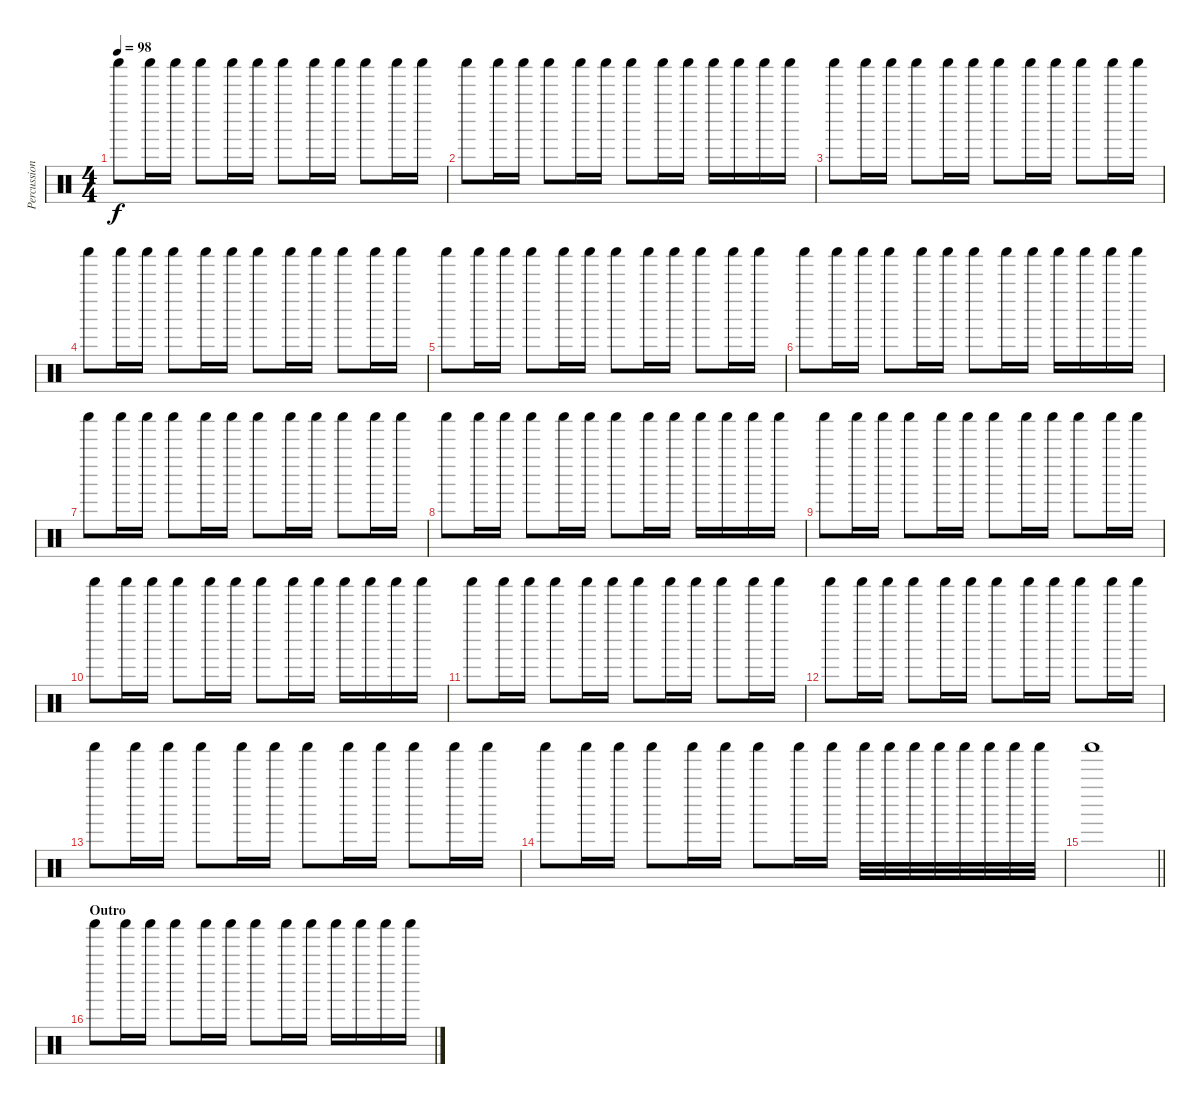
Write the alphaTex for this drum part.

\track ("Percussion" "Percussion") {instrument percussion}
\staff {score}
\articulation defaults
\ts (4 4)
\tempo 98
\clef neutral
\ks c "Shaker (hit)".8{dy f} "Shaker (hit)".16 "Shaker (hit)".16 "Shaker (hit)".8 "Shaker (hit)".16 "Shaker (hit)".16 "Shaker (hit)".8 "Shaker (hit)".16 "Shaker (hit)".16 "Shaker (hit)".8 "Shaker (hit)".16 "Shaker (hit)".16
|
"Shaker (hit)".8 "Shaker (hit)".16 "Shaker (hit)".16 "Shaker (hit)".8 "Shaker (hit)".16 "Shaker (hit)".16 "Shaker (hit)".8 "Shaker (hit)".16 "Shaker (hit)".16 "Shaker (hit)".16 "Shaker (hit)".16 "Shaker (hit)".16 "Shaker (hit)".16 |
"Shaker (hit)".8 "Shaker (hit)".16 "Shaker (hit)".16 "Shaker (hit)".8 "Shaker (hit)".16 "Shaker (hit)".16 "Shaker (hit)".8 "Shaker (hit)".16 "Shaker (hit)".16 "Shaker (hit)".8 "Shaker (hit)".16 "Shaker (hit)".16 |
"Shaker (hit)".8 "Shaker (hit)".16 "Shaker (hit)".16 "Shaker (hit)".8 "Shaker (hit)".16 "Shaker (hit)".16 "Shaker (hit)".8 "Shaker (hit)".16 "Shaker (hit)".16 "Shaker (hit)".8 "Shaker (hit)".16 "Shaker (hit)".16 |
"Shaker (hit)".8 "Shaker (hit)".16 "Shaker (hit)".16 "Shaker (hit)".8 "Shaker (hit)".16 "Shaker (hit)".16 "Shaker (hit)".8 "Shaker (hit)".16 "Shaker (hit)".16 "Shaker (hit)".8 "Shaker (hit)".16 "Shaker (hit)".16 |
"Shaker (hit)".8 "Shaker (hit)".16 "Shaker (hit)".16 "Shaker (hit)".8 "Shaker (hit)".16 "Shaker (hit)".16 "Shaker (hit)".8 "Shaker (hit)".16 "Shaker (hit)".16 "Shaker (hit)".16 "Shaker (hit)".16 "Shaker (hit)".16 "Shaker (hit)".16 |
"Shaker (hit)".8 "Shaker (hit)".16 "Shaker (hit)".16 "Shaker (hit)".8 "Shaker (hit)".16 "Shaker (hit)".16 "Shaker (hit)".8 "Shaker (hit)".16 "Shaker (hit)".16 "Shaker (hit)".8 "Shaker (hit)".16 "Shaker (hit)".16 |
"Shaker (hit)".8 "Shaker (hit)".16 "Shaker (hit)".16 "Shaker (hit)".8 "Shaker (hit)".16 "Shaker (hit)".16 "Shaker (hit)".8 "Shaker (hit)".16 "Shaker (hit)".16 "Shaker (hit)".16 "Shaker (hit)".16 "Shaker (hit)".16 "Shaker (hit)".16 |
"Shaker (hit)".8 "Shaker (hit)".16 "Shaker (hit)".16 "Shaker (hit)".8 "Shaker (hit)".16 "Shaker (hit)".16 "Shaker (hit)".8 "Shaker (hit)".16 "Shaker (hit)".16 "Shaker (hit)".8 "Shaker (hit)".16 "Shaker (hit)".16 |
"Shaker (hit)".8 "Shaker (hit)".16 "Shaker (hit)".16 "Shaker (hit)".8 "Shaker (hit)".16 "Shaker (hit)".16 "Shaker (hit)".8 "Shaker (hit)".16 "Shaker (hit)".16 "Shaker (hit)".16 "Shaker (hit)".16 "Shaker (hit)".16 "Shaker (hit)".16 |
"Shaker (hit)".8 "Shaker (hit)".16 "Shaker (hit)".16 "Shaker (hit)".8 "Shaker (hit)".16 "Shaker (hit)".16 "Shaker (hit)".8 "Shaker (hit)".16 "Shaker (hit)".16 "Shaker (hit)".8 "Shaker (hit)".16 "Shaker (hit)".16 |
"Shaker (hit)".8 "Shaker (hit)".16 "Shaker (hit)".16 "Shaker (hit)".8 "Shaker (hit)".16 "Shaker (hit)".16 "Shaker (hit)".8 "Shaker (hit)".16 "Shaker (hit)".16 "Shaker (hit)".8 "Shaker (hit)".16 "Shaker (hit)".16 |
"Shaker (hit)".8 "Shaker (hit)".16 "Shaker (hit)".16 "Shaker (hit)".8 "Shaker (hit)".16 "Shaker (hit)".16 "Shaker (hit)".8 "Shaker (hit)".16 "Shaker (hit)".16 "Shaker (hit)".8 "Shaker (hit)".16 "Shaker (hit)".16 |
"Shaker (hit)".8 "Shaker (hit)".16 "Shaker (hit)".16 "Shaker (hit)".8 "Shaker (hit)".16 "Shaker (hit)".16 "Shaker (hit)".8 "Shaker (hit)".16 "Shaker (hit)".16 "Shaker (hit)".32 "Shaker (hit)".32 "Shaker (hit)".32 "Shaker (hit)".32 "Shaker (hit)".32 "Shaker (hit)".32 "Shaker (hit)".32 "Shaker (hit)".32 |
\barLineRight lightlight "Shaker (hit)".1
|
\section ("" "Outro")
"Shaker (hit)".8 "Shaker (hit)".16 "Shaker (hit)".16 "Shaker (hit)".8 "Shaker (hit)".16 "Shaker (hit)".16 "Shaker (hit)".8 "Shaker (hit)".16 "Shaker (hit)".16 "Shaker (hit)".16 "Shaker (hit)".16 "Shaker (hit)".16 "Shaker (hit)".16
